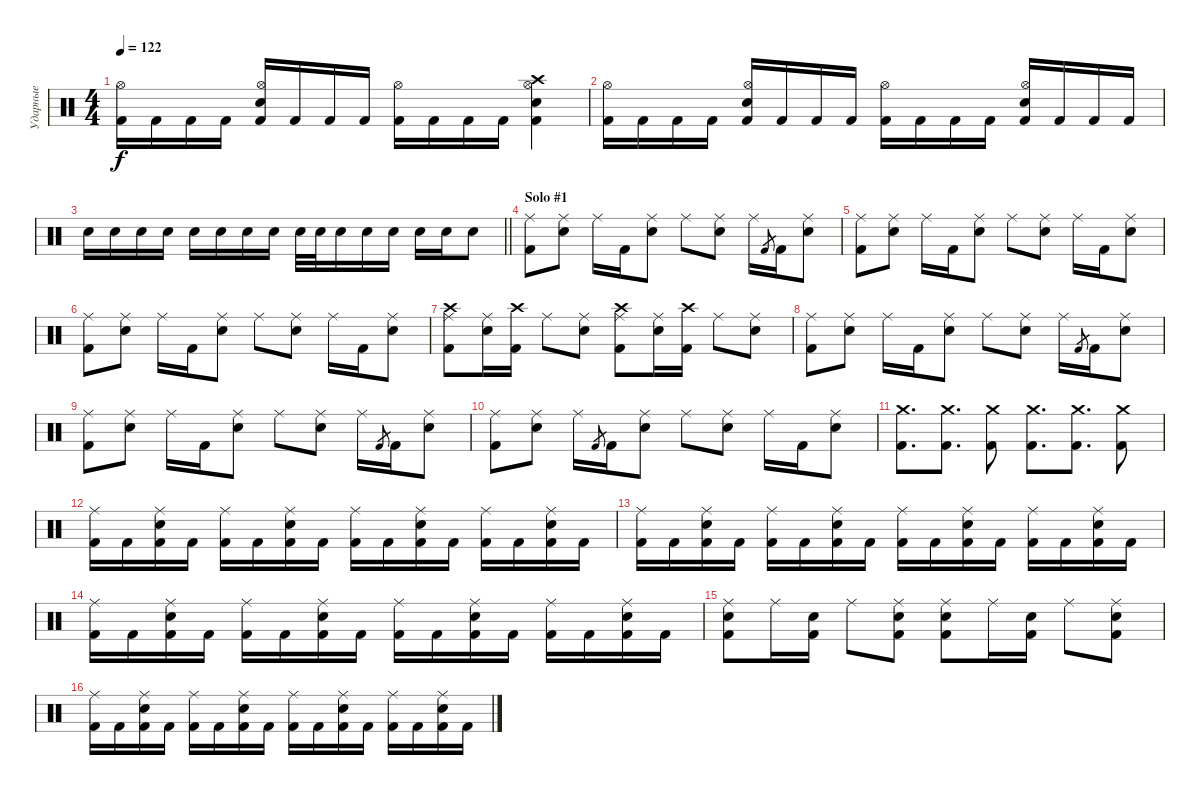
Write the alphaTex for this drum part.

\track ("Ударные" "Ударные") {instrument percussion}
\staff {score}
\articulation defaults
\ts (4 4)
\tempo 122
\clef neutral
\ks c
("Kick (hit) 2" "Hi-Hat (open)").16{dy f} "Kick (hit) 2".16 "Kick (hit) 2".16 "Kick (hit) 2".16 ("Kick (hit) 2" "Electric Snare (hit)" "Hi-Hat (open)").16 "Kick (hit) 2".16 "Kick (hit) 2".16 "Kick (hit) 2".16 ("Kick (hit) 2" "Hi-Hat (open)").16 "Kick (hit) 2".16 "Kick (hit) 2".16 "Kick (hit) 2".16 ("Kick (hit) 2" "Electric Snare (hit)" "Hi-Hat (open)" "Crash high (hit)").4 |
("Kick (hit) 2" "Hi-Hat (open)").16 "Kick (hit) 2".16 "Kick (hit) 2".16 "Kick (hit) 2".16 ("Kick (hit) 2" "Electric Snare (hit)" "Hi-Hat (open)").16 "Kick (hit) 2".16 "Kick (hit) 2".16 "Kick (hit) 2".16 ("Kick (hit) 2" "Hi-Hat (open)").16 "Kick (hit) 2".16 "Kick (hit) 2".16 "Kick (hit) 2".16 ("Kick (hit) 2" "Electric Snare (hit)" "Hi-Hat (open)").16 "Kick (hit) 2".16 "Kick (hit) 2".16 "Kick (hit) 2".16 |
\barLineRight lightlight "Electric Snare (hit)".16 "Electric Snare (hit)".16 "Electric Snare (hit)".16 "Electric Snare (hit)".16 "Electric Snare (hit)".16 "Electric Snare (hit)".16 "Electric Snare (hit)".16 "Electric Snare (hit)".16 "Electric Snare (hit)".32 "Electric Snare (hit)".32 "Electric Snare (hit)".16 "Electric Snare (hit)".16 "Electric Snare (hit)".16 "Electric Snare (hit)".16 "Electric Snare (hit)".16 "Electric Snare (hit)".8
|
\section ("" "Solo #1")
("Kick (hit) 2" "Ride (middle)").8 ("Electric Snare (hit)" "Ride (middle)").8 "Ride (middle)".16 "Kick (hit) 2".16 ("Electric Snare (hit)" "Ride (middle)").8 "Ride (middle)".8 ("Electric Snare (hit)" "Ride (middle)").8 "Ride (middle)".16 "Kick (hit) 2".8{gr} "Kick (hit) 2".16 ("Electric Snare (hit)" "Ride (middle)").8 |
("Kick (hit) 2" "Ride (middle)").8 ("Electric Snare (hit)" "Ride (middle)").8 "Ride (middle)".16 "Kick (hit) 2".16 ("Electric Snare (hit)" "Ride (middle)").8 "Ride (middle)".8 ("Electric Snare (hit)" "Ride (middle)").8 "Ride (middle)".16 "Kick (hit) 2".16 ("Electric Snare (hit)" "Ride (middle)").8 |
("Kick (hit) 2" "Ride (middle)").8 ("Electric Snare (hit)" "Ride (middle)").8 "Ride (middle)".16 "Kick (hit) 2".16 ("Electric Snare (hit)" "Ride (middle)").8 "Ride (middle)".8 ("Electric Snare (hit)" "Ride (middle)").8 "Ride (middle)".16 "Kick (hit) 2".16 ("Electric Snare (hit)" "Ride (middle)").8 |
("Kick (hit) 2" "Ride (middle)" "Crash high (hit)").8 ("Electric Snare (hit)" "Ride (middle)").16 ("Kick (hit) 2" "Crash high (hit)").16 "Ride (middle)".8 ("Electric Snare (hit)" "Ride (middle)").8 ("Kick (hit) 2" "Ride (middle)" "Crash high (hit)").8 ("Electric Snare (hit)" "Ride (middle)").16 ("Kick (hit) 2" "Crash high (hit)").16 "Ride (middle)".8 ("Electric Snare (hit)" "Ride (middle)").8 |
("Kick (hit) 2" "Ride (middle)").8 ("Electric Snare (hit)" "Ride (middle)").8 "Ride (middle)".16 "Kick (hit) 2".16 ("Electric Snare (hit)" "Ride (middle)").8 "Ride (middle)".8 ("Electric Snare (hit)" "Ride (middle)").8 "Ride (middle)".16 "Kick (hit) 2".8{gr} "Kick (hit) 2".16 ("Electric Snare (hit)" "Ride (middle)").8 |
("Kick (hit) 2" "Ride (middle)").8 ("Electric Snare (hit)" "Ride (middle)").8 "Ride (middle)".16 "Kick (hit) 2".16 ("Electric Snare (hit)" "Ride (middle)").8 "Ride (middle)".8 ("Electric Snare (hit)" "Ride (middle)").8 "Ride (middle)".16 "Kick (hit) 2".8{gr} "Kick (hit) 2".16 ("Electric Snare (hit)" "Ride (middle)").8 |
("Kick (hit) 2" "Ride (middle)").8 ("Electric Snare (hit)" "Ride (middle)").8 "Ride (middle)".16 "Kick (hit) 2".8{gr} "Kick (hit) 2".16 ("Electric Snare (hit)" "Ride (middle)").8 "Ride (middle)".8 ("Electric Snare (hit)" "Ride (middle)").8 "Ride (middle)".16 "Kick (hit) 2".16 ("Electric Snare (hit)" "Ride (middle)").8 |
("Kick (hit) 2" "Crash medium (hit)").8{d} ("Kick (hit) 2" "Crash medium (hit)").8{d} ("Kick (hit) 2" "Crash medium (hit)").8 ("Kick (hit) 2" "Crash medium (hit)").8{d} ("Kick (hit) 2" "Crash medium (hit)").8{d} ("Kick (hit) 2" "Crash medium (hit)").8 |
("Kick (hit) 2" "Ride (middle)").16 "Kick (hit) 2".16 ("Kick (hit) 2" "Electric Snare (hit)" "Ride (middle)").16 "Kick (hit) 2".16 ("Kick (hit) 2" "Ride (middle)").16 "Kick (hit) 2".16 ("Kick (hit) 2" "Electric Snare (hit)" "Ride (middle)").16 "Kick (hit) 2".16 ("Kick (hit) 2" "Ride (middle)").16 "Kick (hit) 2".16 ("Kick (hit) 2" "Electric Snare (hit)" "Ride (middle)").16 "Kick (hit) 2".16 ("Kick (hit) 2" "Ride (middle)").16 "Kick (hit) 2".16 ("Kick (hit) 2" "Electric Snare (hit)" "Ride (middle)").16 "Kick (hit) 2".16 |
("Kick (hit) 2" "Ride (middle)").16 "Kick (hit) 2".16 ("Kick (hit) 2" "Electric Snare (hit)" "Ride (middle)").16 "Kick (hit) 2".16 ("Kick (hit) 2" "Ride (middle)").16 "Kick (hit) 2".16 ("Kick (hit) 2" "Electric Snare (hit)" "Ride (middle)").16 "Kick (hit) 2".16 ("Kick (hit) 2" "Ride (middle)").16 "Kick (hit) 2".16 ("Kick (hit) 2" "Electric Snare (hit)" "Ride (middle)").16 "Kick (hit) 2".16 ("Kick (hit) 2" "Ride (middle)").16 "Kick (hit) 2".16 ("Kick (hit) 2" "Electric Snare (hit)" "Ride (middle)").16 "Kick (hit) 2".16 |
("Kick (hit) 2" "Ride (middle)").16 "Kick (hit) 2".16 ("Kick (hit) 2" "Electric Snare (hit)" "Ride (middle)").16 "Kick (hit) 2".16 ("Kick (hit) 2" "Ride (middle)").16 "Kick (hit) 2".16 ("Kick (hit) 2" "Electric Snare (hit)" "Ride (middle)").16 "Kick (hit) 2".16 ("Kick (hit) 2" "Ride (middle)").16 "Kick (hit) 2".16 ("Kick (hit) 2" "Electric Snare (hit)" "Ride (middle)").16 "Kick (hit) 2".16 ("Kick (hit) 2" "Ride (middle)").16 "Kick (hit) 2".16 ("Kick (hit) 2" "Electric Snare (hit)" "Ride (middle)").16 "Kick (hit) 2".16 |
("Kick (hit) 2" "Electric Snare (hit)" "Ride (middle)").8 "Ride (middle)".16 ("Kick (hit) 2" "Electric Snare (hit)").16 "Ride (middle)".8 ("Kick (hit) 2" "Electric Snare (hit)" "Ride (middle)").8 ("Kick (hit) 2" "Electric Snare (hit)" "Ride (middle)").8 "Ride (middle)".16 ("Kick (hit) 2" "Electric Snare (hit)").16 "Ride (middle)".8 ("Kick (hit) 2" "Electric Snare (hit)" "Ride (middle)").8 |
("Kick (hit) 2" "Ride (middle)").16 "Kick (hit) 2".16 ("Kick (hit) 2" "Electric Snare (hit)" "Ride (middle)").16 "Kick (hit) 2".16 ("Kick (hit) 2" "Ride (middle)").16 "Kick (hit) 2".16 ("Kick (hit) 2" "Electric Snare (hit)" "Ride (middle)").16 "Kick (hit) 2".16 ("Kick (hit) 2" "Ride (middle)").16 "Kick (hit) 2".16 ("Kick (hit) 2" "Electric Snare (hit)" "Ride (middle)").16 "Kick (hit) 2".16 ("Kick (hit) 2" "Ride (middle)").16 "Kick (hit) 2".16 ("Kick (hit) 2" "Electric Snare (hit)" "Ride (middle)").16 "Kick (hit) 2".16
